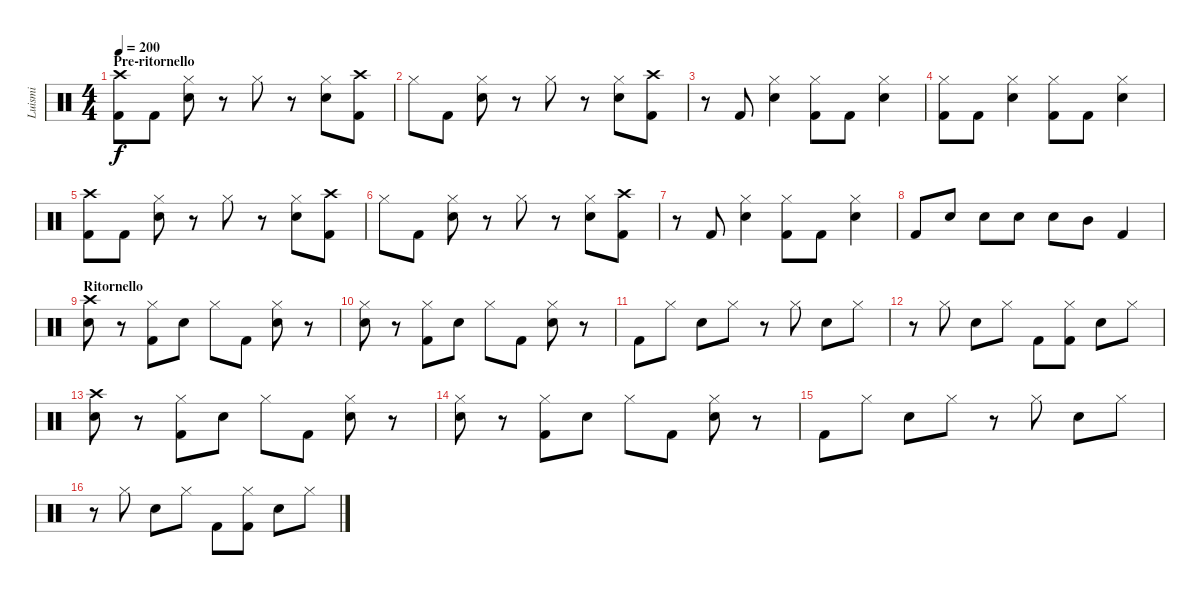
\track ("Luismi" "Luismi") {instrument percussion}
\staff {score}
\articulation defaults
\ts (4 4)
\section ("" "Pre-ritornello")
\tempo 200
\clef neutral
\ks c
("Crash high (hit)" "Kick (hit) 2").8{dy f} "Kick (hit) 2".8 ("Hi-Hat (closed)" "Electric Snare (hit)").8 r.8 "Hi-Hat (closed)".8 r.8 ("Hi-Hat (closed)" "Electric Snare (hit)").8 ("Crash high (hit)" "Kick (hit) 2").8 |
"Hi-Hat (closed)".8 "Kick (hit) 2".8 ("Hi-Hat (closed)" "Electric Snare (hit)").8 r.8 "Hi-Hat (closed)".8 r.8 ("Hi-Hat (closed)" "Electric Snare (hit)").8 ("Crash high (hit)" "Kick (hit) 2").8 |
r.8 "Kick (hit) 2".8 ("Hi-Hat (closed)" "Electric Snare (hit)").4 ("Hi-Hat (closed)" "Kick (hit) 2").8 "Kick (hit) 2".8 ("Hi-Hat (closed)" "Electric Snare (hit)").4 |
("Hi-Hat (closed)" "Kick (hit) 2").8 "Kick (hit) 2".8 ("Hi-Hat (closed)" "Electric Snare (hit)").4 ("Hi-Hat (closed)" "Kick (hit) 2").8 "Kick (hit) 2".8 ("Hi-Hat (closed)" "Electric Snare (hit)").4 |
("Crash high (hit)" "Kick (hit) 2").8 "Kick (hit) 2".8 ("Hi-Hat (closed)" "Electric Snare (hit)").8 r.8 "Hi-Hat (closed)".8 r.8 ("Hi-Hat (closed)" "Electric Snare (hit)").8 ("Crash high (hit)" "Kick (hit) 2").8 |
"Hi-Hat (closed)".8 "Kick (hit) 2".8 ("Hi-Hat (closed)" "Electric Snare (hit)").8 r.8 "Hi-Hat (closed)".8 r.8 ("Hi-Hat (closed)" "Electric Snare (hit)").8 ("Crash high (hit)" "Kick (hit) 2").8 |
r.8 "Kick (hit) 2".8 ("Hi-Hat (closed)" "Electric Snare (hit)").4 ("Hi-Hat (closed)" "Kick (hit) 2").8 "Kick (hit) 2".8 ("Hi-Hat (closed)" "Electric Snare (hit)").4 |
"Kick (hit) 2".8 "Electric Snare (hit)".8 "Electric Snare (hit)".8 "Electric Snare (hit)".8 "Electric Snare (hit)".8 "Mid Tom (hit)".8 "Kick (hit) 2".4 |
\section ("" "Ritornello")
("Crash high (hit)" "Electric Snare (hit)").8 r.8 ("Hi-Hat (closed)" "Kick (hit) 2").8 "Electric Snare (hit)".8 "Hi-Hat (closed)".8 "Kick (hit) 2".8 ("Hi-Hat (closed)" "Electric Snare (hit)").8 r.8 |
("Hi-Hat (closed)" "Electric Snare (hit)").8 r.8 ("Hi-Hat (closed)" "Kick (hit) 2").8 "Electric Snare (hit)".8 "Hi-Hat (closed)".8 "Kick (hit) 2".8 ("Hi-Hat (closed)" "Electric Snare (hit)").8 r.8 |
"Kick (hit) 2".8 "Hi-Hat (closed)".8 "Electric Snare (hit)".8 "Hi-Hat (closed)".8 r.8 "Hi-Hat (closed)".8 "Electric Snare (hit)".8 "Hi-Hat (closed)".8 |
r.8 "Hi-Hat (closed)".8 "Electric Snare (hit)".8 "Hi-Hat (closed)".8 "Kick (hit) 2".8 ("Hi-Hat (closed)" "Kick (hit) 2").8 "Electric Snare (hit)".8 "Hi-Hat (closed)".8 |
("Crash high (hit)" "Electric Snare (hit)").8 r.8 ("Hi-Hat (closed)" "Kick (hit) 2").8 "Electric Snare (hit)".8 "Hi-Hat (closed)".8 "Kick (hit) 2".8 ("Hi-Hat (closed)" "Electric Snare (hit)").8 r.8 |
("Hi-Hat (closed)" "Electric Snare (hit)").8 r.8 ("Hi-Hat (closed)" "Kick (hit) 2").8 "Electric Snare (hit)".8 "Hi-Hat (closed)".8 "Kick (hit) 2".8 ("Hi-Hat (closed)" "Electric Snare (hit)").8 r.8 |
"Kick (hit) 2".8 "Hi-Hat (closed)".8 "Electric Snare (hit)".8 "Hi-Hat (closed)".8 r.8 "Hi-Hat (closed)".8 "Electric Snare (hit)".8 "Hi-Hat (closed)".8 |
r.8 "Hi-Hat (closed)".8 "Electric Snare (hit)".8 "Hi-Hat (closed)".8 "Kick (hit) 2".8 ("Hi-Hat (closed)" "Kick (hit) 2").8 "Electric Snare (hit)".8 "Hi-Hat (closed)".8
